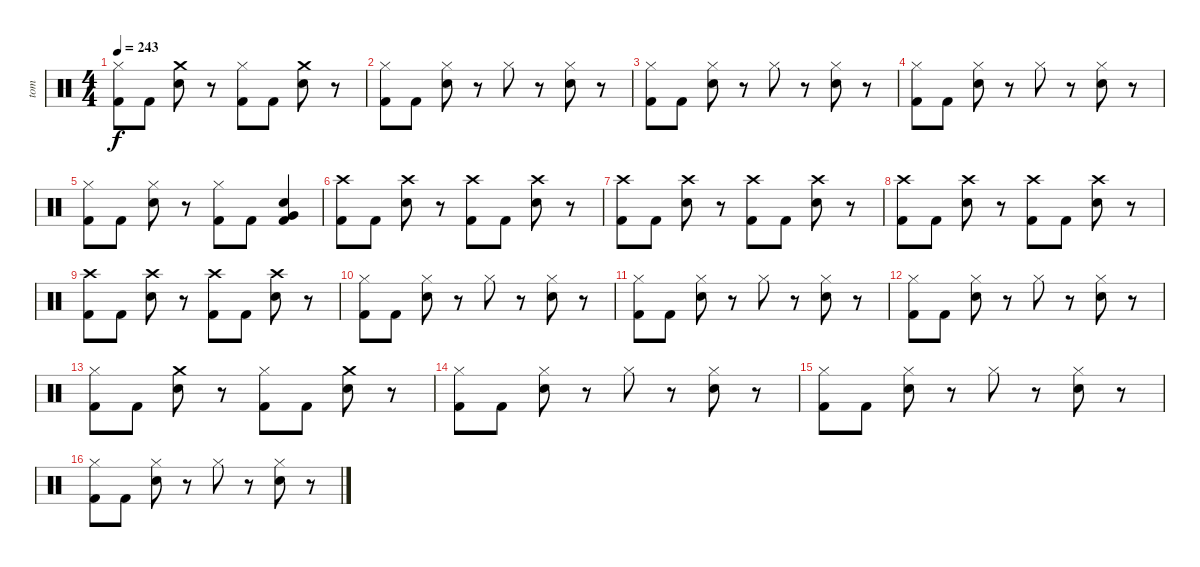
\track ("tom" "tom") {instrument percussion}
\staff {score}
\articulation defaults
\ts (4 4)
\tempo 243
\clef neutral
\ks c
("Hi-Hat (closed)" "Kick (hit) 2").8{dy f} "Kick (hit) 2".8 ("Crash medium (hit)" "Electric Snare (hit)").8 r.8 ("Hi-Hat (closed)" "Kick (hit) 2").8 "Kick (hit) 2".8 ("Crash medium (hit)" "Electric Snare (hit)").8 r.8 |
("Hi-Hat (closed)" "Kick (hit) 2").8 "Kick (hit) 2".8 ("Hi-Hat (closed)" "Electric Snare (hit)").8 r.8 "Hi-Hat (closed)".8 r.8 ("Hi-Hat (closed)" "Electric Snare (hit)").8 r.8 |
("Hi-Hat (closed)" "Kick (hit) 2").8 "Kick (hit) 2".8 ("Hi-Hat (closed)" "Electric Snare (hit)").8 r.8 "Hi-Hat (closed)".8 r.8 ("Hi-Hat (closed)" "Electric Snare (hit)").8 r.8 |
("Hi-Hat (closed)" "Kick (hit) 2").8 "Kick (hit) 2".8 ("Hi-Hat (closed)" "Electric Snare (hit)").8 r.8 "Hi-Hat (closed)".8 r.8 ("Hi-Hat (closed)" "Electric Snare (hit)").8 r.8 |
("Hi-Hat (closed)" "Kick (hit) 2").8 "Kick (hit) 2".8 ("Hi-Hat (closed)" "Electric Snare (hit)").8 r.8 ("Hi-Hat (closed)" "Kick (hit) 2").8 "Kick (hit) 2".8 ("Very Low Tom (hit)" "Kick (hit) 2" "Electric Snare (hit)").4 |
("Crash high (hit)" "Kick (hit) 2").8 "Kick (hit) 2".8 ("Crash high (hit)" "Electric Snare (hit)").8 r.8 ("Crash high (hit)" "Kick (hit) 2").8 "Kick (hit) 2".8 ("Crash high (hit)" "Electric Snare (hit)").8 r.8 |
("Crash high (hit)" "Kick (hit) 2").8 "Kick (hit) 2".8 ("Crash high (hit)" "Electric Snare (hit)").8 r.8 ("Crash high (hit)" "Kick (hit) 2").8 "Kick (hit) 2".8 ("Crash high (hit)" "Electric Snare (hit)").8 r.8 |
("Crash high (hit)" "Kick (hit) 2").8 "Kick (hit) 2".8 ("Crash high (hit)" "Electric Snare (hit)").8 r.8 ("Crash high (hit)" "Kick (hit) 2").8 "Kick (hit) 2".8 ("Crash high (hit)" "Electric Snare (hit)").8 r.8 |
("Crash high (hit)" "Kick (hit) 2").8 "Kick (hit) 2".8 ("Crash high (hit)" "Electric Snare (hit)").8 r.8 ("Crash high (hit)" "Kick (hit) 2").8 "Kick (hit) 2".8 ("Crash high (hit)" "Electric Snare (hit)").8 r.8 |
("Hi-Hat (closed)" "Kick (hit) 2").8 "Kick (hit) 2".8 ("Hi-Hat (closed)" "Electric Snare (hit)").8 r.8 "Hi-Hat (closed)".8 r.8 ("Hi-Hat (closed)" "Electric Snare (hit)").8 r.8 |
("Hi-Hat (closed)" "Kick (hit) 2").8 "Kick (hit) 2".8 ("Hi-Hat (closed)" "Electric Snare (hit)").8 r.8 "Hi-Hat (closed)".8 r.8 ("Hi-Hat (closed)" "Electric Snare (hit)").8 r.8 |
("Hi-Hat (closed)" "Kick (hit) 2").8 "Kick (hit) 2".8 ("Hi-Hat (closed)" "Electric Snare (hit)").8 r.8 "Hi-Hat (closed)".8 r.8 ("Hi-Hat (closed)" "Electric Snare (hit)").8 r.8 |
("Hi-Hat (closed)" "Kick (hit) 2").8 "Kick (hit) 2".8 ("Crash medium (hit)" "Electric Snare (hit)").8 r.8 ("Hi-Hat (closed)" "Kick (hit) 2").8 "Kick (hit) 2".8 ("Crash medium (hit)" "Electric Snare (hit)").8 r.8 |
("Hi-Hat (closed)" "Kick (hit) 2").8 "Kick (hit) 2".8 ("Hi-Hat (closed)" "Electric Snare (hit)").8 r.8 "Hi-Hat (closed)".8 r.8 ("Hi-Hat (closed)" "Electric Snare (hit)").8 r.8 |
("Hi-Hat (closed)" "Kick (hit) 2").8 "Kick (hit) 2".8 ("Hi-Hat (closed)" "Electric Snare (hit)").8 r.8 "Hi-Hat (closed)".8 r.8 ("Hi-Hat (closed)" "Electric Snare (hit)").8 r.8 |
("Hi-Hat (closed)" "Kick (hit) 2").8 "Kick (hit) 2".8 ("Hi-Hat (closed)" "Electric Snare (hit)").8 r.8 "Hi-Hat (closed)".8 r.8 ("Hi-Hat (closed)" "Electric Snare (hit)").8 r.8
